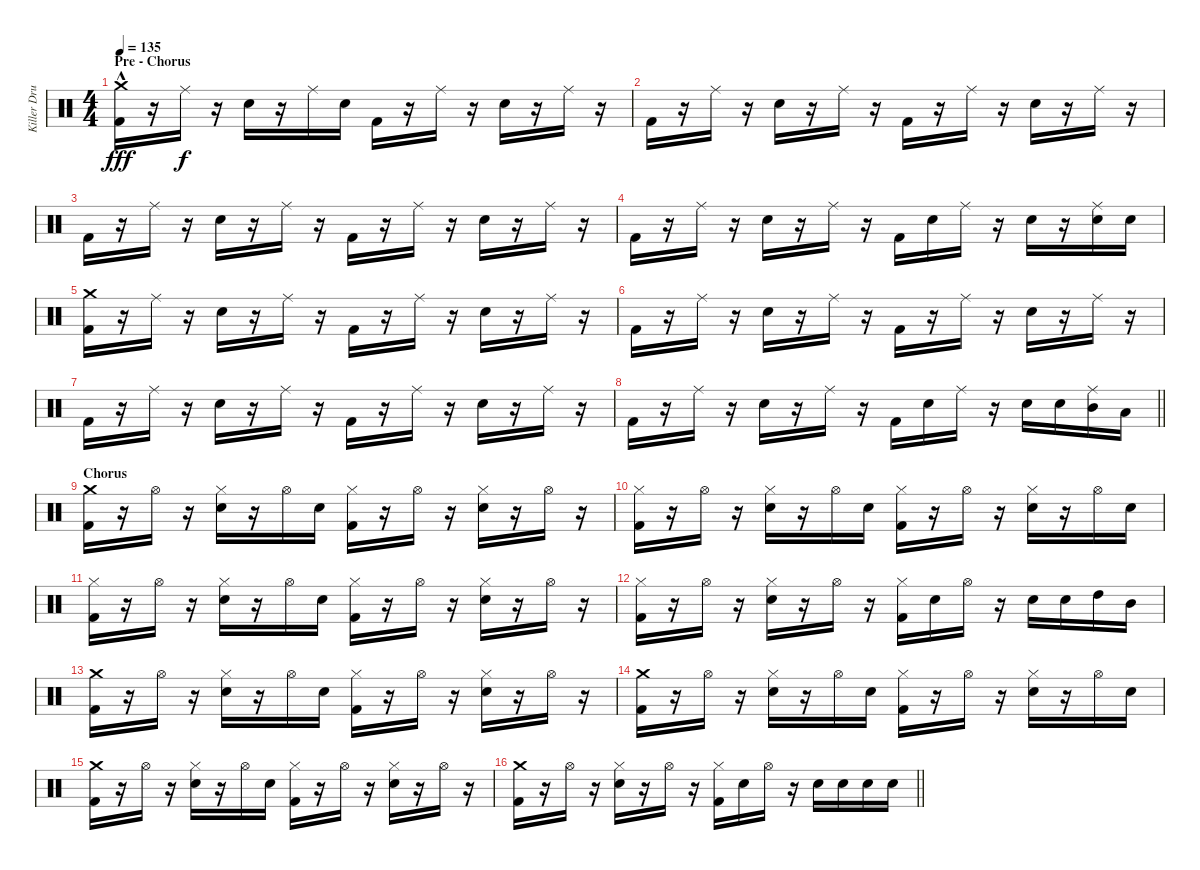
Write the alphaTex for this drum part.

\track ("Killer Drummer" "Killer Dru") {instrument percussion}
\staff {score}
\articulation defaults
\ts (4 4)
\section ("" "Pre - Chorus")
\tempo 135
\clef neutral
\ks c
("Crash medium (hit)" "Kick (hit) 2"{hac}).16{dy fff} r.16 "Ride (middle)".16{dy f} r.16 "Electric Snare (hit)".16 r.16 "Ride (middle)".16 "Electric Snare (hit)".16 "Kick (hit) 2".16 r.16 "Ride (middle)".16 r.16 "Electric Snare (hit)".16 r.16 "Ride (middle)".16 r.16 |
"Kick (hit) 2".16 r.16 "Ride (middle)".16 r.16 "Electric Snare (hit)".16 r.16 "Ride (middle)".16 r.16 "Kick (hit) 2".16 r.16 "Ride (middle)".16 r.16 "Electric Snare (hit)".16 r.16 "Ride (middle)".16 r.16 |
"Kick (hit) 2".16 r.16 "Ride (middle)".16 r.16 "Electric Snare (hit)".16 r.16 "Ride (middle)".16 r.16 "Kick (hit) 2".16 r.16 "Ride (middle)".16 r.16 "Electric Snare (hit)".16 r.16 "Ride (middle)".16 r.16 |
"Kick (hit) 2".16 r.16 "Ride (middle)".16 r.16 "Electric Snare (hit)".16 r.16 "Ride (middle)".16 r.16 "Kick (hit) 2".16 "Electric Snare (hit)".16 "Ride (middle)".16 r.16 "Electric Snare (hit)".16 r.16 ("Ride (middle)" "Electric Snare (hit)").16 "Electric Snare (hit)".16 |
("Crash medium (hit)" "Kick (hit) 2").16 r.16 "Ride (middle)".16 r.16 "Electric Snare (hit)".16 r.16 "Ride (middle)".16 r.16 "Kick (hit) 2".16 r.16 "Ride (middle)".16 r.16 "Electric Snare (hit)".16 r.16 "Ride (middle)".16 r.16 |
"Kick (hit) 2".16 r.16 "Ride (middle)".16 r.16 "Electric Snare (hit)".16 r.16 "Ride (middle)".16 r.16 "Kick (hit) 2".16 r.16 "Ride (middle)".16 r.16 "Electric Snare (hit)".16 r.16 "Ride (middle)".16 r.16 |
"Kick (hit) 2".16 r.16 "Ride (middle)".16 r.16 "Electric Snare (hit)".16 r.16 "Ride (middle)".16 r.16 "Kick (hit) 2".16 r.16 "Ride (middle)".16 r.16 "Electric Snare (hit)".16 r.16 "Ride (middle)".16 r.16 |
\barLineRight lightlight "Kick (hit) 2".16
r.16 "Ride (middle)".16 r.16 "Electric Snare (hit)".16 r.16 "Ride (middle)".16 r.16 "Kick (hit) 2".16 "Electric Snare (hit)".16 "Ride (middle)".16 r.16 "Electric Snare (hit)".16 "Electric Snare (hit)".16 ("Ride (middle)" "Mid Tom (hit)").16 "Low Tom (hit)".16 |
\section ("" "Chorus")
("Crash medium (hit)" "Kick (hit) 2").16 r.16 "Hi-Hat (open)".16 r.16 ("Hi-Hat (closed)" "Electric Snare (hit)").16 r.16 "Hi-Hat (open)".16 "Electric Snare (hit)".16 ("Hi-Hat (closed)" "Kick (hit) 2").16 r.16 "Hi-Hat (open)".16 r.16 ("Hi-Hat (closed)" "Electric Snare (hit)").16 r.16 "Hi-Hat (open)".16 r.16 |
("Hi-Hat (closed)" "Kick (hit) 2").16 r.16 "Hi-Hat (open)".16 r.16 ("Hi-Hat (closed)" "Electric Snare (hit)").16 r.16 "Hi-Hat (open)".16 "Electric Snare (hit)".16 ("Hi-Hat (closed)" "Kick (hit) 2").16 r.16 "Hi-Hat (open)".16 r.16 ("Hi-Hat (closed)" "Electric Snare (hit)").16 r.16 "Hi-Hat (open)".16 "Electric Snare (hit)".16 |
("Hi-Hat (closed)" "Kick (hit) 2").16 r.16 "Hi-Hat (open)".16 r.16 ("Hi-Hat (closed)" "Electric Snare (hit)").16 r.16 "Hi-Hat (open)".16 "Electric Snare (hit)".16 ("Hi-Hat (closed)" "Kick (hit) 2").16 r.16 "Hi-Hat (open)".16 r.16 ("Hi-Hat (closed)" "Electric Snare (hit)").16 r.16 "Hi-Hat (open)".16 r.16 |
("Hi-Hat (closed)" "Kick (hit) 2").16 r.16 "Hi-Hat (open)".16 r.16 ("Hi-Hat (closed)" "Electric Snare (hit)").16 r.16 "Hi-Hat (open)".16 r.16 ("Hi-Hat (closed)" "Kick (hit) 2").16 "Electric Snare (hit)".16 "Hi-Hat (open)".16 r.16 "Electric Snare (hit)".16 "Electric Snare (hit)".16 "High Tom (hit)".16 "Mid Tom (hit)".16 |
("Crash medium (hit)" "Kick (hit) 2").16 r.16 "Hi-Hat (open)".16 r.16 ("Hi-Hat (closed)" "Electric Snare (hit)").16 r.16 "Hi-Hat (open)".16 "Electric Snare (hit)".16 ("Hi-Hat (closed)" "Kick (hit) 2").16 r.16 "Hi-Hat (open)".16 r.16 ("Hi-Hat (closed)" "Electric Snare (hit)").16 r.16 "Hi-Hat (open)".16 r.16 |
("Crash medium (hit)" "Kick (hit) 2").16 r.16 "Hi-Hat (open)".16 r.16 ("Hi-Hat (closed)" "Electric Snare (hit)").16 r.16 "Hi-Hat (open)".16 "Electric Snare (hit)".16 ("Hi-Hat (closed)" "Kick (hit) 2").16 r.16 "Hi-Hat (open)".16 r.16 ("Hi-Hat (closed)" "Electric Snare (hit)").16 r.16 "Hi-Hat (open)".16 "Electric Snare (hit)".16 |
("Crash medium (hit)" "Kick (hit) 2").16 r.16 "Hi-Hat (open)".16 r.16 ("Hi-Hat (closed)" "Electric Snare (hit)").16 r.16 "Hi-Hat (open)".16 "Electric Snare (hit)".16 ("Hi-Hat (closed)" "Kick (hit) 2").16 r.16 "Hi-Hat (open)".16 r.16 ("Hi-Hat (closed)" "Electric Snare (hit)").16 r.16 "Hi-Hat (open)".16 r.16 |
\barLineRight lightlight
("Crash medium (hit)" "Kick (hit) 2").16 r.16 "Hi-Hat (open)".16 r.16 ("Hi-Hat (closed)" "Electric Snare (hit)").16 r.16 "Hi-Hat (open)".16 r.16 ("Hi-Hat (closed)" "Kick (hit) 2").16 "Electric Snare (hit)".16 "Hi-Hat (open)".16 r.16 "Electric Snare (hit)".16 "Electric Snare (hit)".16 "Electric Snare (hit)".16 "Electric Snare (hit)".16
